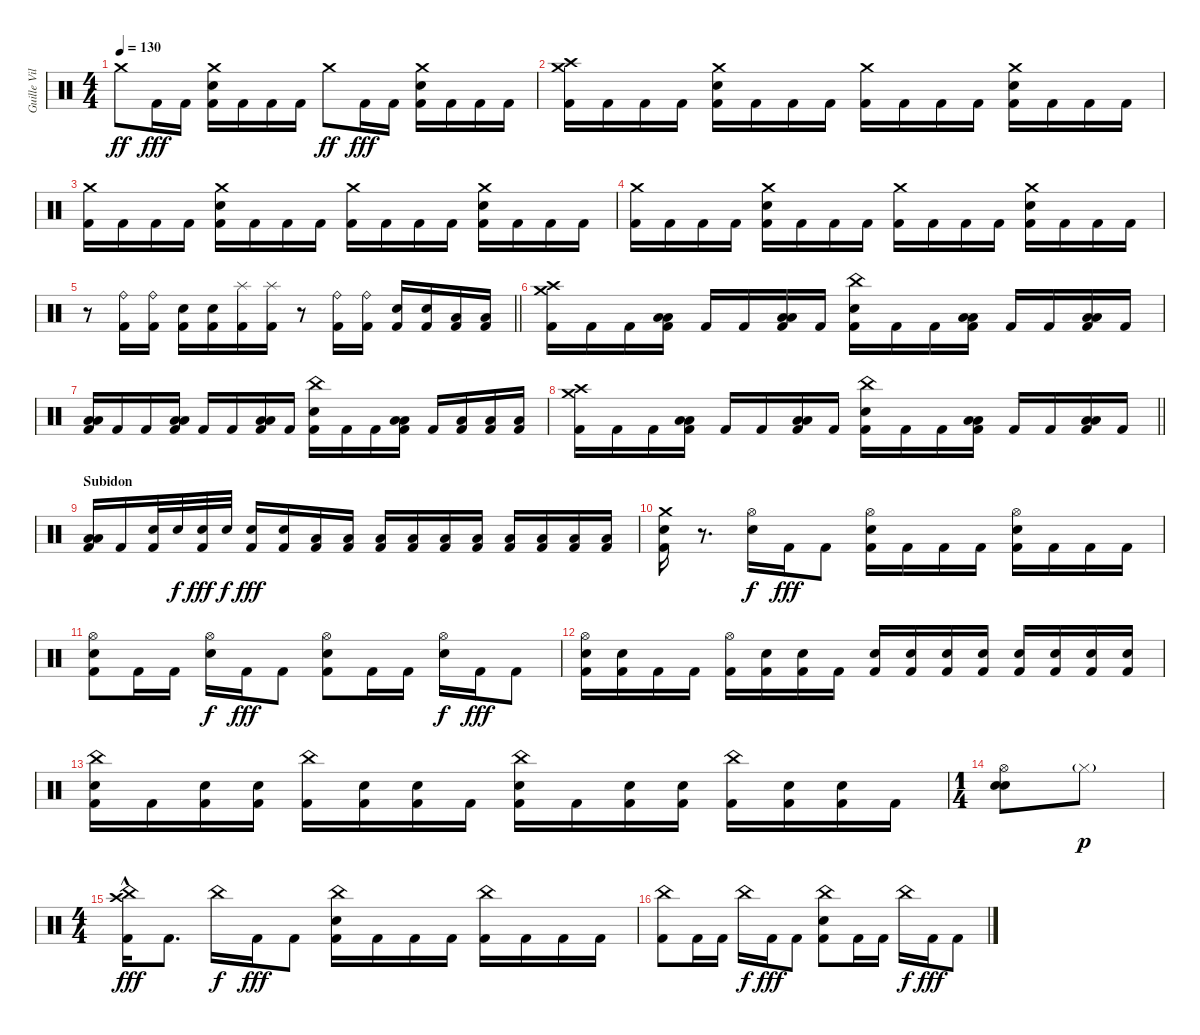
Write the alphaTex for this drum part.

\track ("Guille Vila" "Guille Vil") {instrument percussion}
\staff {score}
\articulation defaults
\ts (4 4)
\tempo 130
\clef neutral
\ks c "Crash medium (hit)".8{dy ff} "Kick (hit) 2".16{dy fff} "Kick (hit) 2".16
("Crash medium (hit)" "Snare (hit) 2" "Kick (hit) 2").16 "Kick (hit) 2".16 "Kick (hit) 2".16 "Kick (hit) 2".16 "Crash medium (hit)".8{dy ff} "Kick (hit) 2".16{dy fff} "Kick (hit) 2".16 ("Crash medium (hit)" "Snare (hit) 2" "Kick (hit) 2").16 "Kick (hit) 2".16 "Kick (hit) 2".16 "Kick (hit) 2".16 |
("Crash medium (hit)" "Crash high (hit)" "Kick (hit) 2").16 "Kick (hit) 2".16 "Kick (hit) 2".16 "Kick (hit) 2".16 ("Crash medium (hit)" "Snare (hit) 2" "Kick (hit) 2").16 "Kick (hit) 2".16 "Kick (hit) 2".16 "Kick (hit) 2".16 ("Crash medium (hit)" "Kick (hit) 2").16 "Kick (hit) 2".16 "Kick (hit) 2".16 "Kick (hit) 2".16 ("Crash medium (hit)" "Snare (hit) 2" "Kick (hit) 2").16 "Kick (hit) 2".16 "Kick (hit) 2".16 "Kick (hit) 2".16 |
("Crash medium (hit)" "Kick (hit) 2").16 "Kick (hit) 2".16 "Kick (hit) 2".16 "Kick (hit) 2".16 ("Crash medium (hit)" "Snare (hit) 2" "Kick (hit) 2").16 "Kick (hit) 2".16 "Kick (hit) 2".16 "Kick (hit) 2".16 ("Crash medium (hit)" "Kick (hit) 2").16 "Kick (hit) 2".16 "Kick (hit) 2".16 "Kick (hit) 2".16 ("Crash medium (hit)" "Snare (hit) 2" "Kick (hit) 2").16 "Kick (hit) 2".16 "Kick (hit) 2".16 "Kick (hit) 2".16 |
("Crash medium (hit)" "Kick (hit) 2").16 "Kick (hit) 2".16 "Kick (hit) 2".16 "Kick (hit) 2".16 ("Crash medium (hit)" "Snare (hit) 2" "Kick (hit) 2").16 "Kick (hit) 2".16 "Kick (hit) 2".16 "Kick (hit) 2".16 ("Crash medium (hit)" "Kick (hit) 2").16 "Kick (hit) 2".16 "Kick (hit) 2".16 "Kick (hit) 2".16 ("Crash medium (hit)" "Snare (hit) 2" "Kick (hit) 2").16 "Kick (hit) 2".16 "Kick (hit) 2".16 "Kick (hit) 2".16 |
\barLineRight lightlight
r.8 ("Ride (bell)" "Kick (hit) 2").16 ("Ride (bell)" "Kick (hit) 2").16 ("Snare (hit) 2" "Kick (hit) 2").16 ("Snare (hit) 2" "Kick (hit) 2").16 ("Splash (hit)" "Kick (hit) 2").16 ("Splash (hit)" "Kick (hit) 2").16 r.8 ("Ride (bell)" "Kick (hit) 2").16 ("Ride (bell)" "Kick (hit) 2").16 ("Snare (hit) 2" "Kick (hit) 2").16 ("Snare (hit) 2" "Kick (hit) 2").16 ("Low Tom (hit)" "Kick (hit) 2").16 ("Low Tom (hit)" "Kick (hit) 2").16 |
("Crash high (hit)" "Crash medium (hit)" "Kick (hit) 2").16 "Kick (hit) 2".16 "Kick (hit) 2".16 ("Low Floor Tom (hit)" "Low Tom (hit)" "Kick (hit) 2").16 "Kick (hit) 2".16 "Kick (hit) 2".16 ("Low Tom (hit)" "Low Floor Tom (hit)" "Kick (hit) 2").16 "Kick (hit) 2".16 ("China (hit)" "Snare (hit) 2" "Kick (hit) 2").16 "Kick (hit) 2".16 "Kick (hit) 2".16 ("Low Tom (hit)" "Low Floor Tom (hit)" "Kick (hit) 2").16 "Kick (hit) 2".16 "Kick (hit) 2".16 ("Low Tom (hit)" "Low Floor Tom (hit)" "Kick (hit) 2").16 "Kick (hit) 2".16 |
("Low Tom (hit)" "Low Floor Tom (hit)" "Kick (hit) 2").16 "Kick (hit) 2".16 "Kick (hit) 2".16 ("Low Tom (hit)" "Low Floor Tom (hit)" "Kick (hit) 2").16 "Kick (hit) 2".16 "Kick (hit) 2".16 ("Low Tom (hit)" "Low Floor Tom (hit)" "Kick (hit) 2").16 "Kick (hit) 2".16 ("China (hit)" "Snare (hit) 2" "Kick (hit) 2").16 "Kick (hit) 2".16 "Kick (hit) 2".16 ("Low Tom (hit)" "Low Floor Tom (hit)" "Kick (hit) 2").16 "Kick (hit) 2".16 ("Low Tom (hit)" "Kick (hit) 2").16 ("Low Floor Tom (hit)" "Kick (hit) 2").16 ("Low Tom (hit)" "Kick (hit) 2").16 |
\barLineRight lightlight
("Crash high (hit)" "Crash medium (hit)" "Kick (hit) 2").16 "Kick (hit) 2".16 "Kick (hit) 2".16 ("Low Floor Tom (hit)" "Low Tom (hit)" "Kick (hit) 2").16 "Kick (hit) 2".16 "Kick (hit) 2".16 ("Low Tom (hit)" "Low Floor Tom (hit)" "Kick (hit) 2").16 "Kick (hit) 2".16 ("China (hit)" "Snare (hit) 2" "Kick (hit) 2").16 "Kick (hit) 2".16 "Kick (hit) 2".16 ("Low Tom (hit)" "Low Floor Tom (hit)" "Kick (hit) 2").16 "Kick (hit) 2".16 "Kick (hit) 2".16 ("Low Tom (hit)" "Low Floor Tom (hit)" "Kick (hit) 2").16 "Kick (hit) 2".16 |
\section ("" "Subidon")
("Low Tom (hit)" "Low Floor Tom (hit)" "Kick (hit) 2").16 "Kick (hit) 2".16 ("Snare (hit) 2" "Kick (hit) 2").32 "Snare (hit) 2".32{dy f} ("Snare (hit) 2" "Kick (hit) 2").32{dy fff} "Snare (hit) 2".32{dy f} ("Snare (hit) 2" "Kick (hit) 2").16{dy fff} ("Snare (hit) 2" "Kick (hit) 2").16 ("Low Tom (hit)" "Kick (hit) 2").16 ("Low Tom (hit)" "Kick (hit) 2").16 ("Low Tom (hit)" "Kick (hit) 2").16 ("Low Tom (hit)" "Kick (hit) 2").16 ("Low Tom (hit)" "Kick (hit) 2").16 ("Low Tom (hit)" "Kick (hit) 2").16 ("Low Tom (hit)" "Kick (hit) 2").16 ("Low Tom (hit)" "Kick (hit) 2").16 ("Low Floor Tom (hit)" "Kick (hit) 2").16 ("Low Floor Tom (hit)" "Kick (hit) 2").16 |
("Crash medium (hit)" "Snare (hit) 2" "Kick (hit) 2").16 r.8{d} ("Hi-Hat (open)" "Snare (hit) 2").16{dy f} "Kick (hit) 2".16{dy fff} "Kick (hit) 2".8 ("Hi-Hat (open)" "Snare (hit) 2" "Kick (hit) 2").16 "Kick (hit) 2".16 "Kick (hit) 2".16 "Kick (hit) 2".16 ("Hi-Hat (open)" "Snare (hit) 2" "Kick (hit) 2").16 "Kick (hit) 2".16 "Kick (hit) 2".16 "Kick (hit) 2".16 |
("Hi-Hat (open)" "Snare (hit) 2" "Kick (hit) 2").8 "Kick (hit) 2".16 "Kick (hit) 2".16 ("Hi-Hat (open)" "Snare (hit) 2").16{dy f} "Kick (hit) 2".16{dy fff} "Kick (hit) 2".8 ("Hi-Hat (open)" "Snare (hit) 2" "Kick (hit) 2").8 "Kick (hit) 2".16 "Kick (hit) 2".16 ("Hi-Hat (open)" "Snare (hit) 2").16{dy f} "Kick (hit) 2".16{dy fff} "Kick (hit) 2".8 |
("Hi-Hat (open)" "Snare (hit) 2" "Kick (hit) 2").16 ("Snare (hit) 2" "Kick (hit) 2").16 "Kick (hit) 2".16 "Kick (hit) 2".16 ("Hi-Hat (open)" "Kick (hit) 2").16 ("Snare (hit) 2" "Kick (hit) 2").16 ("Snare (hit) 2" "Kick (hit) 2").16 "Kick (hit) 2".16 ("Snare (hit) 2" "Kick (hit) 2").16 ("Snare (hit) 2" "Kick (hit) 2").16 ("Snare (hit) 2" "Kick (hit) 2").16 ("Snare (hit) 2" "Kick (hit) 2").16 ("Snare (hit) 2" "Kick (hit) 2").16 ("Snare (hit) 2" "Kick (hit) 2").16 ("Snare (hit) 2" "Kick (hit) 2").16 ("Snare (hit) 2" "Kick (hit) 2").16 |
("China (hit)" "Snare (hit) 2" "Kick (hit) 2").16 "Kick (hit) 2".16 ("Snare (hit) 2" "Kick (hit) 2").16 ("Snare (hit) 2" "Kick (hit) 2").16 ("China (hit)" "Kick (hit) 2").16 ("Snare (hit) 2" "Kick (hit) 2").16 ("Snare (hit) 2" "Kick (hit) 2").16 "Kick (hit) 2".16 ("China (hit)" "Snare (hit) 2" "Kick (hit) 2").16 "Kick (hit) 2".16 ("Snare (hit) 2" "Kick (hit) 2").16 ("Snare (hit) 2" "Kick (hit) 2").16 ("China (hit)" "Kick (hit) 2").16 ("Snare (hit) 2" "Kick (hit) 2").16 ("Snare (hit) 2" "Kick (hit) 2").16 "Kick (hit) 2".16 |
\ts (1 4)
("Hi-Hat (open)" "Snare (hit) 2" "Snare (hit) 2").8 "Hi-Hat (closed)"{g}.8{dy p} |
\ts (4 4)
("Crash high (hit)" "China (hit)"{hac} "Kick (hit) 2"{hac}).16{dy fff} "Kick (hit) 2".8{d} "China (hit)".16{dy f} "Kick (hit) 2".16{dy fff} "Kick (hit) 2".8 ("China (hit)" "Snare (hit) 2" "Kick (hit) 2").16 "Kick (hit) 2".16 "Kick (hit) 2".16 "Kick (hit) 2".16 ("China (hit)" "Kick (hit) 2").16 "Kick (hit) 2".16 "Kick (hit) 2".16 "Kick (hit) 2".16 |
("China (hit)" "Kick (hit) 2").8 "Kick (hit) 2".16 "Kick (hit) 2".16 "China (hit)".16{dy f} "Kick (hit) 2".16{dy fff} "Kick (hit) 2".8 ("China (hit)" "Snare (hit) 2" "Kick (hit) 2").8 "Kick (hit) 2".16 "Kick (hit) 2".16 "China (hit)".16{dy f} "Kick (hit) 2".16{dy fff} "Kick (hit) 2".8
